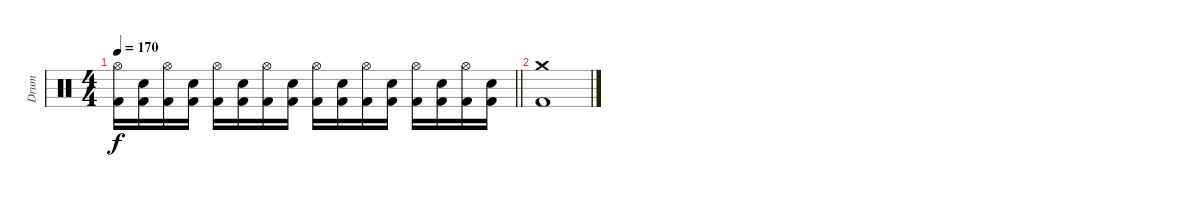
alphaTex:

\track ("Drum" "Drum") {instrument percussion}
\staff {score}
\articulation defaults
\ts (4 4)
\tempo 170
\clef neutral
\barLineRight lightlight
\ks c
("Hi-Hat (open)" "Kick (hit) 2").16{dy f} ("Snare (hit) 2" "Kick (hit) 2").16 ("Hi-Hat (open)" "Kick (hit) 2").16 ("Snare (hit) 2" "Kick (hit) 2").16 ("Hi-Hat (open)" "Kick (hit) 2").16 ("Snare (hit) 2" "Kick (hit) 2").16 ("Hi-Hat (open)" "Kick (hit) 2").16 ("Snare (hit) 2" "Kick (hit) 2").16 ("Hi-Hat (open)" "Kick (hit) 2").16 ("Snare (hit) 2" "Kick (hit) 2").16 ("Hi-Hat (open)" "Kick (hit) 2").16 ("Snare (hit) 2" "Kick (hit) 2").16 ("Hi-Hat (open)" "Kick (hit) 2").16 ("Snare (hit) 2" "Kick (hit) 2").16 ("Hi-Hat (open)" "Kick (hit) 2").16 ("Snare (hit) 2" "Kick (hit) 2").16 |
("Crash medium (hit)" "Kick (hit) 2").1
